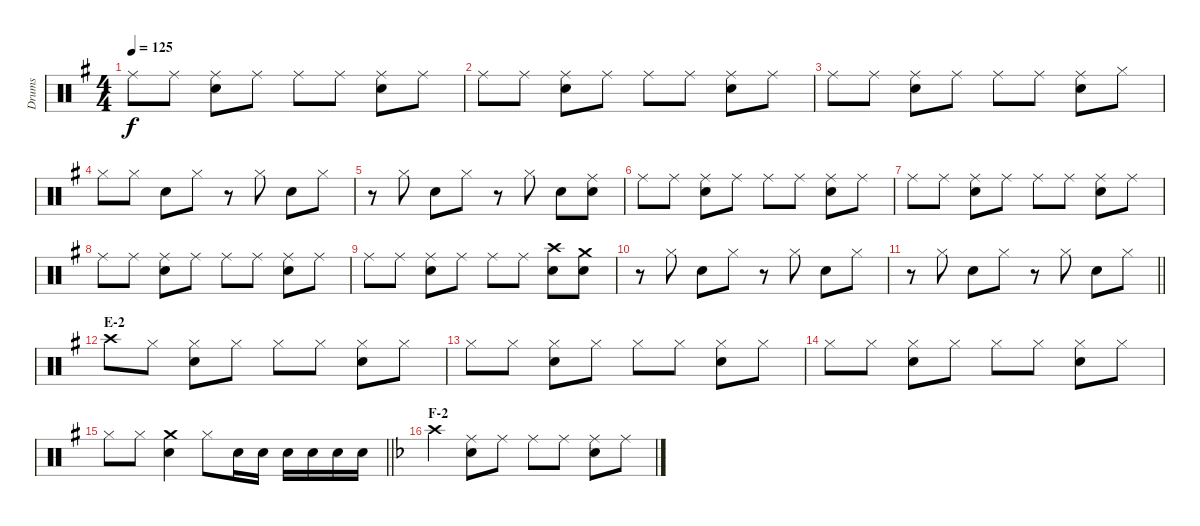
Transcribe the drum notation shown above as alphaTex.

\track ("Drums" "Drums") {instrument percussion}
\staff {score}
\articulation defaults
\ts (4 4)
\tempo 125
\clef neutral
\ks g "Ride (middle)".8{dy f} "Ride (middle)".8
("Ride (middle)" "Snare (hit) 2").8 "Ride (middle)".8 "Ride (middle)".8 "Ride (middle)".8 ("Ride (middle)" "Snare (hit) 2").8 "Ride (middle)".8 |
"Ride (middle)".8 "Ride (middle)".8 ("Ride (middle)" "Snare (hit) 2").8 "Ride (middle)".8 "Ride (middle)".8 "Ride (middle)".8 ("Ride (middle)" "Snare (hit) 2").8 "Ride (middle)".8 |
"Ride (middle)".8 "Ride (middle)".8 ("Ride (middle)" "Snare (hit) 2").8 "Ride (middle)".8 "Ride (middle)".8 "Ride (middle)".8 ("Ride (middle)" "Snare (hit) 2").8 "Hi-Hat (closed)".8 |
"Hi-Hat (closed)".8 "Hi-Hat (closed)".8 "Snare (hit) 2".8 "Hi-Hat (closed)".8 r.8 "Hi-Hat (closed)".8 "Snare (hit) 2".8 "Hi-Hat (closed)".8 |
r.8 "Hi-Hat (closed)".8 "Snare (hit) 2".8 "Hi-Hat (closed)".8 r.8 "Hi-Hat (closed)".8 "Snare (hit) 2".8 ("Ride (middle)" "Snare (hit) 2").8 |
"Ride (middle)".8 "Ride (middle)".8 ("Ride (middle)" "Snare (hit) 2").8 "Ride (middle)".8 "Ride (middle)".8 "Ride (middle)".8 ("Ride (middle)" "Snare (hit) 2").8 "Ride (middle)".8 |
"Ride (middle)".8 "Ride (middle)".8 ("Ride (middle)" "Snare (hit) 2").8 "Ride (middle)".8 "Ride (middle)".8 "Ride (middle)".8 ("Ride (middle)" "Snare (hit) 2").8 "Ride (middle)".8 |
"Ride (middle)".8 "Ride (middle)".8 ("Ride (middle)" "Snare (hit) 2").8 "Ride (middle)".8 "Ride (middle)".8 "Ride (middle)".8 ("Ride (middle)" "Snare (hit) 2").8 "Ride (middle)".8 |
"Ride (middle)".8 "Ride (middle)".8 ("Ride (middle)" "Snare (hit) 2").8 "Ride (middle)".8 "Ride (middle)".8 "Ride (middle)".8 ("Crash high (hit)" "Snare (hit) 2").8 ("Crash medium (hit)" "Snare (hit) 2").8 |
r.8 "Hi-Hat (closed)".8 "Snare (hit) 2".8 "Hi-Hat (closed)".8 r.8 "Hi-Hat (closed)".8 "Snare (hit) 2".8 "Hi-Hat (closed)".8 |
\barLineRight lightlight
r.8 "Hi-Hat (closed)".8 "Snare (hit) 2".8 "Hi-Hat (closed)".8 r.8 "Hi-Hat (closed)".8 "Snare (hit) 2".8 "Hi-Hat (closed)".8 |
\section ("" "E-2")
"Crash high (hit)".8 "Hi-Hat (closed)".8 ("Hi-Hat (closed)" "Snare (hit) 2").8 "Hi-Hat (closed)".8 "Hi-Hat (closed)".8 "Hi-Hat (closed)".8 ("Hi-Hat (closed)" "Snare (hit) 2").8 "Hi-Hat (closed)".8 |
"Hi-Hat (closed)".8 "Hi-Hat (closed)".8 ("Hi-Hat (closed)" "Snare (hit) 2").8 "Hi-Hat (closed)".8 "Hi-Hat (closed)".8 "Hi-Hat (closed)".8 ("Hi-Hat (closed)" "Snare (hit) 2").8 "Hi-Hat (closed)".8 |
"Hi-Hat (closed)".8 "Hi-Hat (closed)".8 ("Hi-Hat (closed)" "Snare (hit) 2").8 "Hi-Hat (closed)".8 "Hi-Hat (closed)".8 "Hi-Hat (closed)".8 ("Hi-Hat (closed)" "Snare (hit) 2").8 "Hi-Hat (closed)".8 |
\barLineRight lightlight "Hi-Hat (closed)".8 "Hi-Hat (closed)".8
("Crash medium (hit)" "Snare (hit) 2").4 "Hi-Hat (closed)".8 "Snare (hit) 2".16 "Snare (hit) 2".16 "Snare (hit) 2".16 "Snare (hit) 2".16 "Snare (hit) 2".16 "Snare (hit) 2".16 |
\section ("" "F-2")
\ks f "Crash high (hit)".4
("Ride (middle)" "Snare (hit) 2").8 "Ride (middle)".8 "Ride (middle)".8 "Ride (middle)".8 ("Ride (middle)" "Snare (hit) 2").8 "Ride (middle)".8
